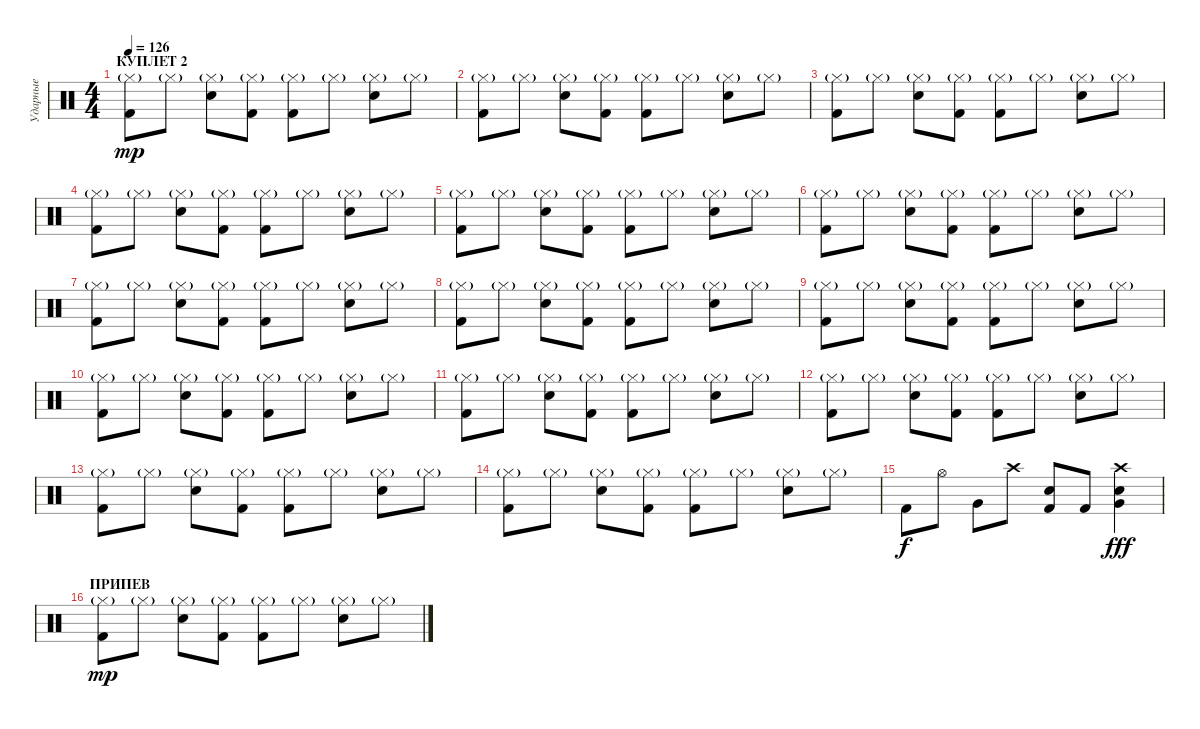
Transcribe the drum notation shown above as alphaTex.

\track ("Ударные" "Ударные") {instrument percussion}
\staff {score}
\articulation defaults
\ts (4 4)
\section ("" "КУПЛЕТ 2")
\tempo 126
\clef neutral
\ks c
("Hi-Hat (closed)"{g} "Kick (hit) 2").8{dy mp} "Hi-Hat (closed)"{g}.8 ("Hi-Hat (closed)"{g} "Snare (hit) 2").8 ("Hi-Hat (closed)"{g} "Kick (hit) 2").8 ("Hi-Hat (closed)"{g} "Kick (hit) 2").8 "Hi-Hat (closed)"{g}.8 ("Hi-Hat (closed)"{g} "Snare (hit) 2").8 "Hi-Hat (closed)"{g}.8 |
("Hi-Hat (closed)"{g} "Kick (hit) 2").8 "Hi-Hat (closed)"{g}.8 ("Hi-Hat (closed)"{g} "Snare (hit) 2").8 ("Hi-Hat (closed)"{g} "Kick (hit) 2").8 ("Hi-Hat (closed)"{g} "Kick (hit) 2").8 "Hi-Hat (closed)"{g}.8 ("Hi-Hat (closed)"{g} "Snare (hit) 2").8 "Hi-Hat (closed)"{g}.8 |
("Hi-Hat (closed)"{g} "Kick (hit) 2").8 "Hi-Hat (closed)"{g}.8 ("Hi-Hat (closed)"{g} "Snare (hit) 2").8 ("Hi-Hat (closed)"{g} "Kick (hit) 2").8 ("Hi-Hat (closed)"{g} "Kick (hit) 2").8 "Hi-Hat (closed)"{g}.8 ("Hi-Hat (closed)"{g} "Snare (hit) 2").8 "Hi-Hat (closed)"{g}.8 |
("Hi-Hat (closed)"{g} "Kick (hit) 2").8 "Hi-Hat (closed)"{g}.8 ("Hi-Hat (closed)"{g} "Snare (hit) 2").8 ("Hi-Hat (closed)"{g} "Kick (hit) 2").8 ("Hi-Hat (closed)"{g} "Kick (hit) 2").8 "Hi-Hat (closed)"{g}.8 ("Hi-Hat (closed)"{g} "Snare (hit) 2").8 "Hi-Hat (closed)"{g}.8 |
("Hi-Hat (closed)"{g} "Kick (hit) 2").8 "Hi-Hat (closed)"{g}.8 ("Hi-Hat (closed)"{g} "Snare (hit) 2").8 ("Hi-Hat (closed)"{g} "Kick (hit) 2").8 ("Hi-Hat (closed)"{g} "Kick (hit) 2").8 "Hi-Hat (closed)"{g}.8 ("Hi-Hat (closed)"{g} "Snare (hit) 2").8 "Hi-Hat (closed)"{g}.8 |
("Hi-Hat (closed)"{g} "Kick (hit) 2").8 "Hi-Hat (closed)"{g}.8 ("Hi-Hat (closed)"{g} "Snare (hit) 2").8 ("Hi-Hat (closed)"{g} "Kick (hit) 2").8 ("Hi-Hat (closed)"{g} "Kick (hit) 2").8 "Hi-Hat (closed)"{g}.8 ("Hi-Hat (closed)"{g} "Snare (hit) 2").8 "Hi-Hat (closed)"{g}.8 |
("Hi-Hat (closed)"{g} "Kick (hit) 2").8 "Hi-Hat (closed)"{g}.8 ("Hi-Hat (closed)"{g} "Snare (hit) 2").8 ("Hi-Hat (closed)"{g} "Kick (hit) 2").8 ("Hi-Hat (closed)"{g} "Kick (hit) 2").8 "Hi-Hat (closed)"{g}.8 ("Hi-Hat (closed)"{g} "Snare (hit) 2").8 "Hi-Hat (closed)"{g}.8 |
("Hi-Hat (closed)"{g} "Kick (hit) 2").8 "Hi-Hat (closed)"{g}.8 ("Hi-Hat (closed)"{g} "Snare (hit) 2").8 ("Hi-Hat (closed)"{g} "Kick (hit) 2").8 ("Hi-Hat (closed)"{g} "Kick (hit) 2").8 "Hi-Hat (closed)"{g}.8 ("Hi-Hat (closed)"{g} "Snare (hit) 2").8 "Hi-Hat (closed)"{g}.8 |
("Hi-Hat (closed)"{g} "Kick (hit) 2").8 "Hi-Hat (closed)"{g}.8 ("Hi-Hat (closed)"{g} "Snare (hit) 2").8 ("Hi-Hat (closed)"{g} "Kick (hit) 2").8 ("Hi-Hat (closed)"{g} "Kick (hit) 2").8 "Hi-Hat (closed)"{g}.8 ("Hi-Hat (closed)"{g} "Snare (hit) 2").8 "Hi-Hat (closed)"{g}.8 |
("Hi-Hat (closed)"{g} "Kick (hit) 2").8 "Hi-Hat (closed)"{g}.8 ("Hi-Hat (closed)"{g} "Snare (hit) 2").8 ("Hi-Hat (closed)"{g} "Kick (hit) 2").8 ("Hi-Hat (closed)"{g} "Kick (hit) 2").8 "Hi-Hat (closed)"{g}.8 ("Hi-Hat (closed)"{g} "Snare (hit) 2").8 "Hi-Hat (closed)"{g}.8 |
("Hi-Hat (closed)"{g} "Kick (hit) 2").8 "Hi-Hat (closed)"{g}.8 ("Hi-Hat (closed)"{g} "Snare (hit) 2").8 ("Hi-Hat (closed)"{g} "Kick (hit) 2").8 ("Hi-Hat (closed)"{g} "Kick (hit) 2").8 "Hi-Hat (closed)"{g}.8 ("Hi-Hat (closed)"{g} "Snare (hit) 2").8 "Hi-Hat (closed)"{g}.8 |
("Hi-Hat (closed)"{g} "Kick (hit) 2").8 "Hi-Hat (closed)"{g}.8 ("Hi-Hat (closed)"{g} "Snare (hit) 2").8 ("Hi-Hat (closed)"{g} "Kick (hit) 2").8 ("Hi-Hat (closed)"{g} "Kick (hit) 2").8 "Hi-Hat (closed)"{g}.8 ("Hi-Hat (closed)"{g} "Snare (hit) 2").8 "Hi-Hat (closed)"{g}.8 |
("Hi-Hat (closed)"{g} "Kick (hit) 2").8 "Hi-Hat (closed)"{g}.8 ("Hi-Hat (closed)"{g} "Snare (hit) 2").8 ("Hi-Hat (closed)"{g} "Kick (hit) 2").8 ("Hi-Hat (closed)"{g} "Kick (hit) 2").8 "Hi-Hat (closed)"{g}.8 ("Hi-Hat (closed)"{g} "Snare (hit) 2").8 "Hi-Hat (closed)"{g}.8 |
("Hi-Hat (closed)"{g} "Kick (hit) 2").8 "Hi-Hat (closed)"{g}.8 ("Hi-Hat (closed)"{g} "Snare (hit) 2").8 ("Hi-Hat (closed)"{g} "Kick (hit) 2").8 ("Hi-Hat (closed)"{g} "Kick (hit) 2").8 "Hi-Hat (closed)"{g}.8 ("Hi-Hat (closed)"{g} "Snare (hit) 2").8 "Hi-Hat (closed)"{g}.8 |
"Kick (hit) 2".8{dy f} "Hi-Hat (open)".8 "Very Low Tom (hit)".8 "Crash high (hit)".8 ("Snare (hit) 2" "Kick (hit) 2").8 "Kick (hit) 2".8 ("Crash high (hit)" "Snare (hit) 2" "Very Low Tom (hit)").4{dy fff} |
\section ("" "ПРИПЕВ")
("Hi-Hat (closed)"{g} "Kick (hit) 2").8{dy mp} "Hi-Hat (closed)"{g}.8 ("Hi-Hat (closed)"{g} "Snare (hit) 2").8 ("Hi-Hat (closed)"{g} "Kick (hit) 2").8 ("Hi-Hat (closed)"{g} "Kick (hit) 2").8 "Hi-Hat (closed)"{g}.8 ("Hi-Hat (closed)"{g} "Snare (hit) 2").8 "Hi-Hat (closed)"{g}.8
